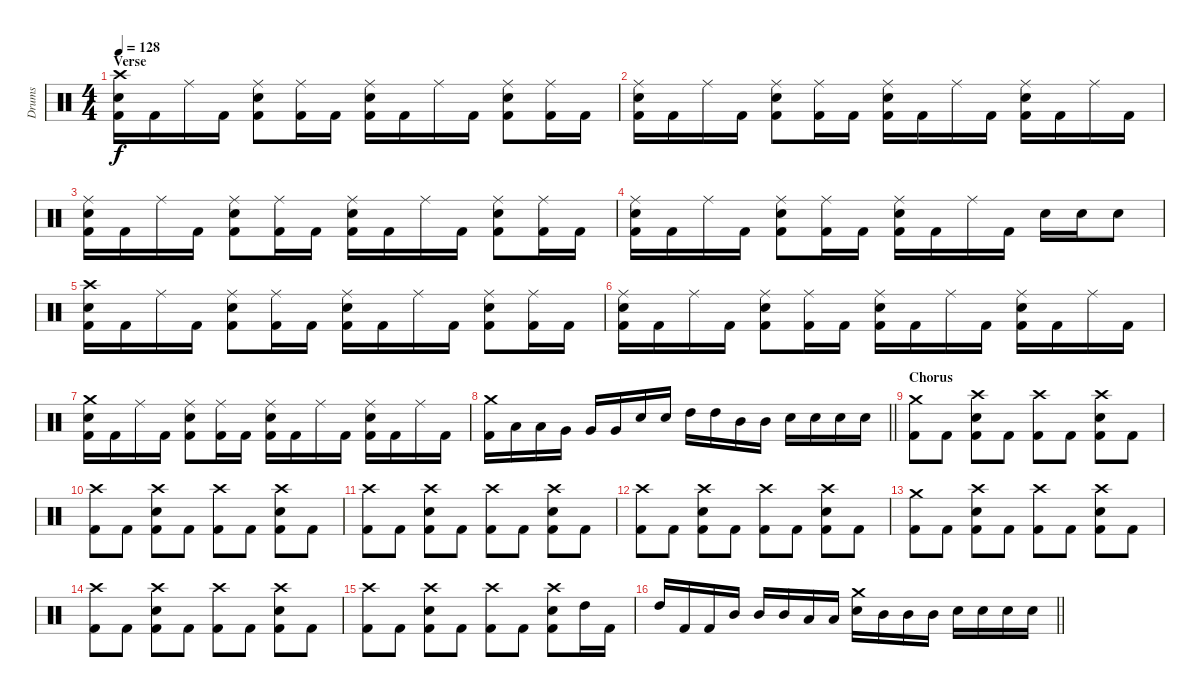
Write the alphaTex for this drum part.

\track ("Drums" "Drums") {instrument percussion}
\staff {score}
\articulation defaults
\ts (4 4)
\section ("" "Verse")
\tempo 128
\clef neutral
\ks c
("Crash high (hit)" "Electric Snare (hit)" "Kick (hit) 2").16{dy f} "Kick (hit) 2".16 "Ride (middle)".16 "Kick (hit) 2".16 ("Ride (middle)" "Electric Snare (hit)" "Kick (hit) 2").8 ("Ride (middle)" "Kick (hit) 2").16 "Kick (hit) 2".16 ("Ride (middle)" "Electric Snare (hit)" "Kick (hit) 2").16 "Kick (hit) 2".16 "Ride (middle)".16 "Kick (hit) 2".16 ("Ride (middle)" "Electric Snare (hit)" "Kick (hit) 2").8 ("Ride (middle)" "Kick (hit) 2").16 "Kick (hit) 2".16 |
("Ride (middle)" "Electric Snare (hit)" "Kick (hit) 2").16 "Kick (hit) 2".16 "Ride (middle)".16 "Kick (hit) 2".16 ("Ride (middle)" "Electric Snare (hit)" "Kick (hit) 2").8 ("Ride (middle)" "Kick (hit) 2").16 "Kick (hit) 2".16 ("Ride (middle)" "Electric Snare (hit)" "Kick (hit) 2").16 "Kick (hit) 2".16 "Ride (middle)".16 "Kick (hit) 2".16 ("Ride (middle)" "Electric Snare (hit)" "Kick (hit) 2").16 "Kick (hit) 2".16 "Ride (middle)".16 "Kick (hit) 2".16 |
("Ride (middle)" "Electric Snare (hit)" "Kick (hit) 2").16 "Kick (hit) 2".16 "Ride (middle)".16 "Kick (hit) 2".16 ("Ride (middle)" "Electric Snare (hit)" "Kick (hit) 2").8 ("Ride (middle)" "Kick (hit) 2").16 "Kick (hit) 2".16 ("Ride (middle)" "Electric Snare (hit)" "Kick (hit) 2").16 "Kick (hit) 2".16 "Ride (middle)".16 "Kick (hit) 2".16 ("Ride (middle)" "Electric Snare (hit)" "Kick (hit) 2").8 ("Ride (middle)" "Kick (hit) 2").16 "Kick (hit) 2".16 |
("Ride (middle)" "Electric Snare (hit)" "Kick (hit) 2").16 "Kick (hit) 2".16 "Ride (middle)".16 "Kick (hit) 2".16 ("Ride (middle)" "Electric Snare (hit)" "Kick (hit) 2").8 ("Ride (middle)" "Kick (hit) 2").16 "Kick (hit) 2".16 ("Ride (middle)" "Electric Snare (hit)" "Kick (hit) 2").16 "Kick (hit) 2".16 "Ride (middle)".16 "Kick (hit) 2".16 "Electric Snare (hit)".16 "Electric Snare (hit)".16 "Electric Snare (hit)".8 |
("Crash high (hit)" "Electric Snare (hit)" "Kick (hit) 2").16 "Kick (hit) 2".16 "Ride (middle)".16 "Kick (hit) 2".16 ("Ride (middle)" "Electric Snare (hit)" "Kick (hit) 2").8 ("Ride (middle)" "Kick (hit) 2").16 "Kick (hit) 2".16 ("Ride (middle)" "Electric Snare (hit)" "Kick (hit) 2").16 "Kick (hit) 2".16 "Ride (middle)".16 "Kick (hit) 2".16 ("Ride (middle)" "Electric Snare (hit)" "Kick (hit) 2").8 ("Ride (middle)" "Kick (hit) 2").16 "Kick (hit) 2".16 |
("Ride (middle)" "Electric Snare (hit)" "Kick (hit) 2").16 "Kick (hit) 2".16 "Ride (middle)".16 "Kick (hit) 2".16 ("Ride (middle)" "Electric Snare (hit)" "Kick (hit) 2").8 ("Ride (middle)" "Kick (hit) 2").16 "Kick (hit) 2".16 ("Ride (middle)" "Electric Snare (hit)" "Kick (hit) 2").16 "Kick (hit) 2".16 "Ride (middle)".16 "Kick (hit) 2".16 ("Ride (middle)" "Electric Snare (hit)" "Kick (hit) 2").16 "Kick (hit) 2".16 "Ride (middle)".16 "Kick (hit) 2".16 |
("Crash medium (hit)" "Electric Snare (hit)" "Kick (hit) 2").16 "Kick (hit) 2".16 "Ride (middle)".16 "Kick (hit) 2".16 ("Ride (middle)" "Electric Snare (hit)" "Kick (hit) 2").8 ("Ride (middle)" "Kick (hit) 2").16 "Kick (hit) 2".16 ("Ride (middle)" "Electric Snare (hit)" "Kick (hit) 2").16 "Kick (hit) 2".16 "Ride (middle)".16 "Kick (hit) 2".16 ("Ride (middle)" "Electric Snare (hit)" "Kick (hit) 2").16 "Kick (hit) 2".16 "Ride (middle)".16 "Kick (hit) 2".16 |
\barLineRight lightlight
("Crash medium (hit)" "Kick (hit) 2").16 "Low Tom (hit)".16 "Low Tom (hit)".16 "Very Low Tom (hit)".16 "Very Low Tom (hit)".16 "Very Low Tom (hit)".16 "Electric Snare (hit)".16 "Electric Snare (hit)".16 "High Tom (hit)".16 "High Tom (hit)".16 "Mid Tom (hit)".16 "Mid Tom (hit)".16 "Electric Snare (hit)".16 "Electric Snare (hit)".16 "Electric Snare (hit)".16 "Electric Snare (hit)".16 |
\section ("" "Chorus")
("Crash medium (hit)" "Kick (hit) 2").8 "Kick (hit) 2".8 ("Crash high (hit)" "Electric Snare (hit)" "Kick (hit) 2").8 "Kick (hit) 2".8 ("Crash high (hit)" "Kick (hit) 2").8 "Kick (hit) 2".8 ("Crash high (hit)" "Electric Snare (hit)" "Kick (hit) 2").8 "Kick (hit) 2".8 |
("Crash high (hit)" "Kick (hit) 2").8 "Kick (hit) 2".8 ("Crash high (hit)" "Electric Snare (hit)" "Kick (hit) 2").8 "Kick (hit) 2".8 ("Crash high (hit)" "Kick (hit) 2").8 "Kick (hit) 2".8 ("Crash high (hit)" "Electric Snare (hit)" "Kick (hit) 2").8 "Kick (hit) 2".8 |
("Crash high (hit)" "Kick (hit) 2").8 "Kick (hit) 2".8 ("Crash high (hit)" "Electric Snare (hit)" "Kick (hit) 2").8 "Kick (hit) 2".8 ("Crash high (hit)" "Kick (hit) 2").8 "Kick (hit) 2".8 ("Crash high (hit)" "Electric Snare (hit)" "Kick (hit) 2").8 "Kick (hit) 2".8 |
("Crash high (hit)" "Kick (hit) 2").8 "Kick (hit) 2".8 ("Crash high (hit)" "Electric Snare (hit)" "Kick (hit) 2").8 "Kick (hit) 2".8 ("Crash high (hit)" "Kick (hit) 2").8 "Kick (hit) 2".8 ("Crash high (hit)" "Electric Snare (hit)" "Kick (hit) 2").8 "Kick (hit) 2".8 |
("Crash medium (hit)" "Kick (hit) 2").8 "Kick (hit) 2".8 ("Crash high (hit)" "Electric Snare (hit)" "Kick (hit) 2").8 "Kick (hit) 2".8 ("Crash high (hit)" "Kick (hit) 2").8 "Kick (hit) 2".8 ("Crash high (hit)" "Electric Snare (hit)" "Kick (hit) 2").8 "Kick (hit) 2".8 |
("Crash high (hit)" "Kick (hit) 2").8 "Kick (hit) 2".8 ("Crash high (hit)" "Electric Snare (hit)" "Kick (hit) 2").8 "Kick (hit) 2".8 ("Crash high (hit)" "Kick (hit) 2").8 "Kick (hit) 2".8 ("Crash high (hit)" "Electric Snare (hit)" "Kick (hit) 2").8 "Kick (hit) 2".8 |
("Crash high (hit)" "Kick (hit) 2").8 "Kick (hit) 2".8 ("Crash high (hit)" "Electric Snare (hit)" "Kick (hit) 2").8 "Kick (hit) 2".8 ("Crash high (hit)" "Kick (hit) 2").8 "Kick (hit) 2".8 ("Crash high (hit)" "Electric Snare (hit)" "Kick (hit) 2").8 "High Tom (hit)".16 "Kick (hit) 2".16 |
\barLineRight lightlight "High Tom (hit)".16 "Kick (hit) 2".16 "Kick (hit) 2".16 "Mid Tom (hit)".16 "Mid Tom (hit)".16 "Mid Tom (hit)".16 "Low Tom (hit)".16 "Low Tom (hit)".16
("Crash medium (hit)" "Electric Snare (hit)").16 "Mid Tom (hit)".16 "Mid Tom (hit)".16 "Mid Tom (hit)".16 "Electric Snare (hit)".16 "Electric Snare (hit)".16 "Electric Snare (hit)".16 "Electric Snare (hit)".16
